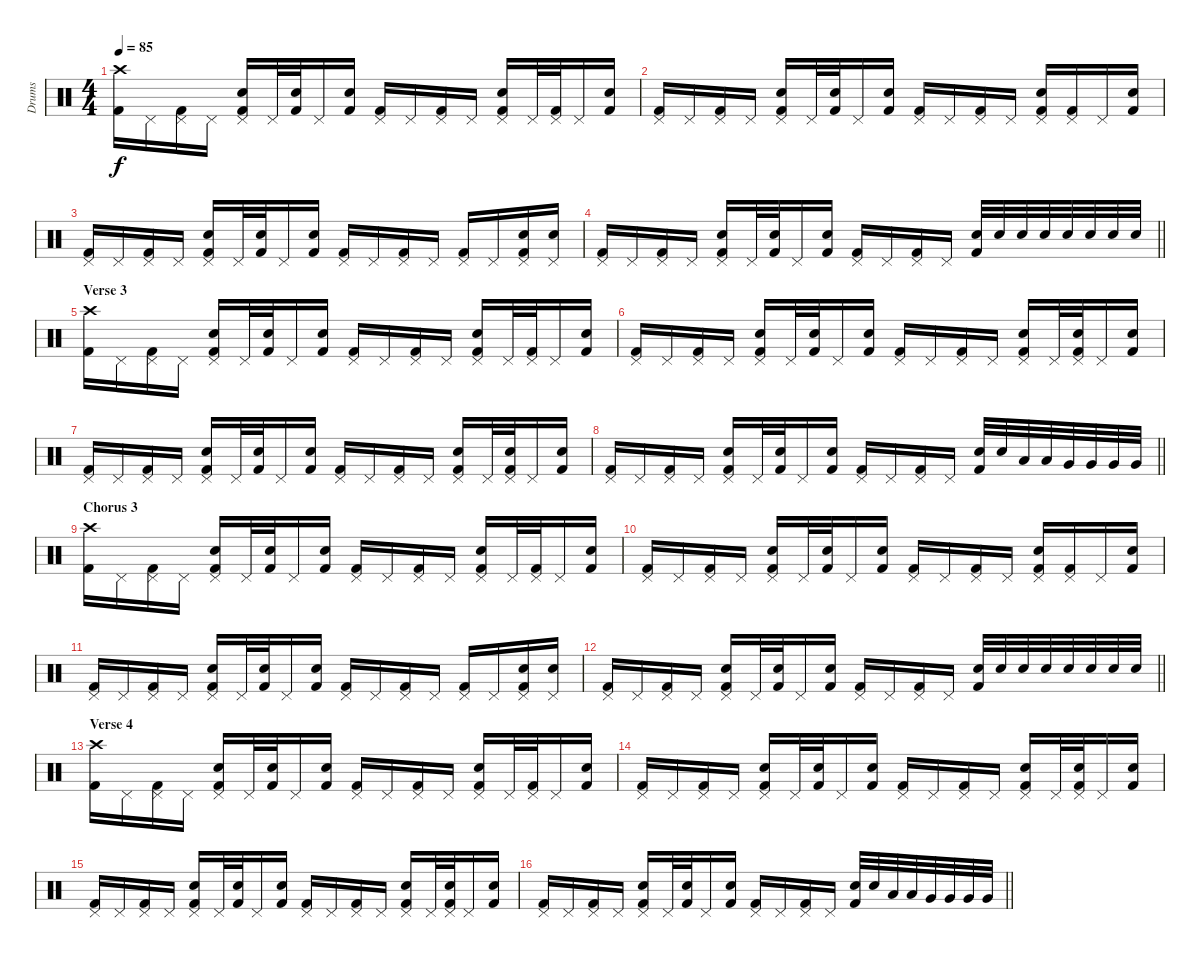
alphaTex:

\track ("Drums" "Drums") {instrument percussion}
\staff {score}
\articulation defaults
\ts (4 4)
\tempo 85
\clef neutral
\ks c
("Kick (hit) 2" "Crash high (hit)").16{dy f} "Pedal Hi-Hat (hit)".16 ("Kick (hit) 2" "Pedal Hi-Hat (hit)").16 "Pedal Hi-Hat (hit)".16 ("Kick (hit) 2" "Snare (hit) 2" "Pedal Hi-Hat (hit)").16 "Pedal Hi-Hat (hit)".32 ("Kick (hit) 2" "Snare (hit) 2").32 "Pedal Hi-Hat (hit)".16 ("Kick (hit) 2" "Snare (hit) 2").16 ("Kick (hit) 2" "Pedal Hi-Hat (hit)").16 "Pedal Hi-Hat (hit)".16 ("Kick (hit) 2" "Pedal Hi-Hat (hit)").16 "Pedal Hi-Hat (hit)".16 ("Kick (hit) 2" "Snare (hit) 2" "Pedal Hi-Hat (hit)").16 "Pedal Hi-Hat (hit)".32 ("Kick (hit) 2" "Pedal Hi-Hat (hit)").32 "Pedal Hi-Hat (hit)".16 ("Kick (hit) 2" "Snare (hit) 2").16 |
("Kick (hit) 2" "Pedal Hi-Hat (hit)").16 "Pedal Hi-Hat (hit)".16 ("Kick (hit) 2" "Pedal Hi-Hat (hit)").16 "Pedal Hi-Hat (hit)".16 ("Kick (hit) 2" "Snare (hit) 2" "Pedal Hi-Hat (hit)").16 "Pedal Hi-Hat (hit)".32 ("Kick (hit) 2" "Snare (hit) 2").32 "Pedal Hi-Hat (hit)".16 ("Kick (hit) 2" "Snare (hit) 2").16 ("Kick (hit) 2" "Pedal Hi-Hat (hit)").16 "Pedal Hi-Hat (hit)".16 ("Kick (hit) 2" "Pedal Hi-Hat (hit)").16 "Pedal Hi-Hat (hit)".16 ("Kick (hit) 2" "Snare (hit) 2" "Pedal Hi-Hat (hit)").16 ("Kick (hit) 2" "Pedal Hi-Hat (hit)").16 "Pedal Hi-Hat (hit)".16 ("Kick (hit) 2" "Snare (hit) 2").16 |
("Kick (hit) 2" "Pedal Hi-Hat (hit)").16 "Pedal Hi-Hat (hit)".16 ("Kick (hit) 2" "Pedal Hi-Hat (hit)").16 "Pedal Hi-Hat (hit)".16 ("Kick (hit) 2" "Snare (hit) 2" "Pedal Hi-Hat (hit)").16 "Pedal Hi-Hat (hit)".32 ("Kick (hit) 2" "Snare (hit) 2").32 "Pedal Hi-Hat (hit)".16 ("Kick (hit) 2" "Snare (hit) 2").16 ("Kick (hit) 2" "Pedal Hi-Hat (hit)").16 "Pedal Hi-Hat (hit)".16 ("Kick (hit) 2" "Pedal Hi-Hat (hit)").16 "Pedal Hi-Hat (hit)".16 ("Kick (hit) 2" "Pedal Hi-Hat (hit)").16 "Pedal Hi-Hat (hit)".16 ("Kick (hit) 2" "Snare (hit) 2" "Pedal Hi-Hat (hit)").16 ("Snare (hit) 2" "Pedal Hi-Hat (hit)").16 |
\barLineRight lightlight
("Kick (hit) 2" "Pedal Hi-Hat (hit)").16 "Pedal Hi-Hat (hit)".16 ("Kick (hit) 2" "Pedal Hi-Hat (hit)").16 "Pedal Hi-Hat (hit)".16 ("Kick (hit) 2" "Snare (hit) 2" "Pedal Hi-Hat (hit)").16 "Pedal Hi-Hat (hit)".32 ("Kick (hit) 2" "Snare (hit) 2").32 "Pedal Hi-Hat (hit)".16 ("Kick (hit) 2" "Snare (hit) 2").16 ("Kick (hit) 2" "Pedal Hi-Hat (hit)").16 "Pedal Hi-Hat (hit)".16 ("Kick (hit) 2" "Pedal Hi-Hat (hit)").16 "Pedal Hi-Hat (hit)".16 ("Kick (hit) 2" "Snare (hit) 2").32 "Snare (hit) 2".32 "Snare (hit) 2".32 "Snare (hit) 2".32 "Snare (hit) 2".32 "Snare (hit) 2".32 "Snare (hit) 2".32 "Snare (hit) 2".32 |
\section ("" "Verse 3")
("Kick (hit) 2" "Crash high (hit)").16 "Pedal Hi-Hat (hit)".16 ("Kick (hit) 2" "Pedal Hi-Hat (hit)").16 "Pedal Hi-Hat (hit)".16 ("Kick (hit) 2" "Snare (hit) 2" "Pedal Hi-Hat (hit)").16 "Pedal Hi-Hat (hit)".32 ("Kick (hit) 2" "Snare (hit) 2").32 "Pedal Hi-Hat (hit)".16 ("Kick (hit) 2" "Snare (hit) 2").16 ("Kick (hit) 2" "Pedal Hi-Hat (hit)").16 "Pedal Hi-Hat (hit)".16 ("Kick (hit) 2" "Pedal Hi-Hat (hit)").16 "Pedal Hi-Hat (hit)".16 ("Kick (hit) 2" "Snare (hit) 2" "Pedal Hi-Hat (hit)").16 "Pedal Hi-Hat (hit)".32 ("Kick (hit) 2" "Pedal Hi-Hat (hit)").32 "Pedal Hi-Hat (hit)".16 ("Kick (hit) 2" "Snare (hit) 2").16 |
("Kick (hit) 2" "Pedal Hi-Hat (hit)").16 "Pedal Hi-Hat (hit)".16 ("Kick (hit) 2" "Pedal Hi-Hat (hit)").16 "Pedal Hi-Hat (hit)".16 ("Kick (hit) 2" "Snare (hit) 2" "Pedal Hi-Hat (hit)").16 "Pedal Hi-Hat (hit)".32 ("Kick (hit) 2" "Snare (hit) 2").32 "Pedal Hi-Hat (hit)".16 ("Kick (hit) 2" "Snare (hit) 2").16 ("Kick (hit) 2" "Pedal Hi-Hat (hit)").16 "Pedal Hi-Hat (hit)".16 ("Kick (hit) 2" "Pedal Hi-Hat (hit)").16 "Pedal Hi-Hat (hit)".16 ("Kick (hit) 2" "Snare (hit) 2" "Pedal Hi-Hat (hit)").16 "Pedal Hi-Hat (hit)".32 ("Kick (hit) 2" "Snare (hit) 2" "Pedal Hi-Hat (hit)").32 "Pedal Hi-Hat (hit)".16 ("Kick (hit) 2" "Snare (hit) 2").16 |
("Kick (hit) 2" "Pedal Hi-Hat (hit)").16 "Pedal Hi-Hat (hit)".16 ("Kick (hit) 2" "Pedal Hi-Hat (hit)").16 "Pedal Hi-Hat (hit)".16 ("Kick (hit) 2" "Snare (hit) 2" "Pedal Hi-Hat (hit)").16 "Pedal Hi-Hat (hit)".32 ("Kick (hit) 2" "Snare (hit) 2").32 "Pedal Hi-Hat (hit)".16 ("Kick (hit) 2" "Snare (hit) 2").16 ("Kick (hit) 2" "Pedal Hi-Hat (hit)").16 "Pedal Hi-Hat (hit)".16 ("Kick (hit) 2" "Pedal Hi-Hat (hit)").16 "Pedal Hi-Hat (hit)".16 ("Kick (hit) 2" "Snare (hit) 2" "Pedal Hi-Hat (hit)").16 "Pedal Hi-Hat (hit)".32 ("Kick (hit) 2" "Snare (hit) 2" "Pedal Hi-Hat (hit)").32 "Pedal Hi-Hat (hit)".16 ("Kick (hit) 2" "Snare (hit) 2").16 |
\barLineRight lightlight
("Kick (hit) 2" "Pedal Hi-Hat (hit)").16 "Pedal Hi-Hat (hit)".16 ("Kick (hit) 2" "Pedal Hi-Hat (hit)").16 "Pedal Hi-Hat (hit)".16 ("Kick (hit) 2" "Snare (hit) 2" "Pedal Hi-Hat (hit)").16 "Pedal Hi-Hat (hit)".32 ("Kick (hit) 2" "Snare (hit) 2").32 "Pedal Hi-Hat (hit)".16 ("Kick (hit) 2" "Snare (hit) 2").16 ("Kick (hit) 2" "Pedal Hi-Hat (hit)").16 "Pedal Hi-Hat (hit)".16 ("Kick (hit) 2" "Pedal Hi-Hat (hit)").16 "Pedal Hi-Hat (hit)".16 ("Kick (hit) 2" "Snare (hit) 2").32 "Snare (hit) 2".32 "Low Tom (hit)".32 "Low Tom (hit)".32 "Very Low Tom (hit)".32 "Very Low Tom (hit)".32 "Very Low Tom (hit)".32 "Very Low Tom (hit)".32 |
\section ("" "Chorus 3")
("Kick (hit) 2" "Crash high (hit)").16 "Pedal Hi-Hat (hit)".16 ("Kick (hit) 2" "Pedal Hi-Hat (hit)").16 "Pedal Hi-Hat (hit)".16 ("Kick (hit) 2" "Snare (hit) 2" "Pedal Hi-Hat (hit)").16 "Pedal Hi-Hat (hit)".32 ("Kick (hit) 2" "Snare (hit) 2").32 "Pedal Hi-Hat (hit)".16 ("Kick (hit) 2" "Snare (hit) 2").16 ("Kick (hit) 2" "Pedal Hi-Hat (hit)").16 "Pedal Hi-Hat (hit)".16 ("Kick (hit) 2" "Pedal Hi-Hat (hit)").16 "Pedal Hi-Hat (hit)".16 ("Kick (hit) 2" "Snare (hit) 2" "Pedal Hi-Hat (hit)").16 "Pedal Hi-Hat (hit)".32 ("Kick (hit) 2" "Pedal Hi-Hat (hit)").32 "Pedal Hi-Hat (hit)".16 ("Kick (hit) 2" "Snare (hit) 2").16 |
("Kick (hit) 2" "Pedal Hi-Hat (hit)").16 "Pedal Hi-Hat (hit)".16 ("Kick (hit) 2" "Pedal Hi-Hat (hit)").16 "Pedal Hi-Hat (hit)".16 ("Kick (hit) 2" "Snare (hit) 2" "Pedal Hi-Hat (hit)").16 "Pedal Hi-Hat (hit)".32 ("Kick (hit) 2" "Snare (hit) 2").32 "Pedal Hi-Hat (hit)".16 ("Kick (hit) 2" "Snare (hit) 2").16 ("Kick (hit) 2" "Pedal Hi-Hat (hit)").16 "Pedal Hi-Hat (hit)".16 ("Kick (hit) 2" "Pedal Hi-Hat (hit)").16 "Pedal Hi-Hat (hit)".16 ("Kick (hit) 2" "Snare (hit) 2" "Pedal Hi-Hat (hit)").16 ("Kick (hit) 2" "Pedal Hi-Hat (hit)").16 "Pedal Hi-Hat (hit)".16 ("Kick (hit) 2" "Snare (hit) 2").16 |
("Kick (hit) 2" "Pedal Hi-Hat (hit)").16 "Pedal Hi-Hat (hit)".16 ("Kick (hit) 2" "Pedal Hi-Hat (hit)").16 "Pedal Hi-Hat (hit)".16 ("Kick (hit) 2" "Snare (hit) 2" "Pedal Hi-Hat (hit)").16 "Pedal Hi-Hat (hit)".32 ("Kick (hit) 2" "Snare (hit) 2").32 "Pedal Hi-Hat (hit)".16 ("Kick (hit) 2" "Snare (hit) 2").16 ("Kick (hit) 2" "Pedal Hi-Hat (hit)").16 "Pedal Hi-Hat (hit)".16 ("Kick (hit) 2" "Pedal Hi-Hat (hit)").16 "Pedal Hi-Hat (hit)".16 ("Kick (hit) 2" "Pedal Hi-Hat (hit)").16 "Pedal Hi-Hat (hit)".16 ("Kick (hit) 2" "Snare (hit) 2" "Pedal Hi-Hat (hit)").16 ("Snare (hit) 2" "Pedal Hi-Hat (hit)").16 |
\barLineRight lightlight
("Kick (hit) 2" "Pedal Hi-Hat (hit)").16 "Pedal Hi-Hat (hit)".16 ("Kick (hit) 2" "Pedal Hi-Hat (hit)").16 "Pedal Hi-Hat (hit)".16 ("Kick (hit) 2" "Snare (hit) 2" "Pedal Hi-Hat (hit)").16 "Pedal Hi-Hat (hit)".32 ("Kick (hit) 2" "Snare (hit) 2").32 "Pedal Hi-Hat (hit)".16 ("Kick (hit) 2" "Snare (hit) 2").16 ("Kick (hit) 2" "Pedal Hi-Hat (hit)").16 "Pedal Hi-Hat (hit)".16 ("Kick (hit) 2" "Pedal Hi-Hat (hit)").16 "Pedal Hi-Hat (hit)".16 ("Kick (hit) 2" "Snare (hit) 2").32 "Snare (hit) 2".32 "Snare (hit) 2".32 "Snare (hit) 2".32 "Snare (hit) 2".32 "Snare (hit) 2".32 "Snare (hit) 2".32 "Snare (hit) 2".32 |
\section ("" "Verse 4")
("Kick (hit) 2" "Crash high (hit)").16 "Pedal Hi-Hat (hit)".16 ("Kick (hit) 2" "Pedal Hi-Hat (hit)").16 "Pedal Hi-Hat (hit)".16 ("Kick (hit) 2" "Snare (hit) 2" "Pedal Hi-Hat (hit)").16 "Pedal Hi-Hat (hit)".32 ("Kick (hit) 2" "Snare (hit) 2").32 "Pedal Hi-Hat (hit)".16 ("Kick (hit) 2" "Snare (hit) 2").16 ("Kick (hit) 2" "Pedal Hi-Hat (hit)").16 "Pedal Hi-Hat (hit)".16 ("Kick (hit) 2" "Pedal Hi-Hat (hit)").16 "Pedal Hi-Hat (hit)".16 ("Kick (hit) 2" "Snare (hit) 2" "Pedal Hi-Hat (hit)").16 "Pedal Hi-Hat (hit)".32 ("Kick (hit) 2" "Pedal Hi-Hat (hit)").32 "Pedal Hi-Hat (hit)".16 ("Kick (hit) 2" "Snare (hit) 2").16 |
("Kick (hit) 2" "Pedal Hi-Hat (hit)").16 "Pedal Hi-Hat (hit)".16 ("Kick (hit) 2" "Pedal Hi-Hat (hit)").16 "Pedal Hi-Hat (hit)".16 ("Kick (hit) 2" "Snare (hit) 2" "Pedal Hi-Hat (hit)").16 "Pedal Hi-Hat (hit)".32 ("Kick (hit) 2" "Snare (hit) 2").32 "Pedal Hi-Hat (hit)".16 ("Kick (hit) 2" "Snare (hit) 2").16 ("Kick (hit) 2" "Pedal Hi-Hat (hit)").16 "Pedal Hi-Hat (hit)".16 ("Kick (hit) 2" "Pedal Hi-Hat (hit)").16 "Pedal Hi-Hat (hit)".16 ("Kick (hit) 2" "Snare (hit) 2" "Pedal Hi-Hat (hit)").16 "Pedal Hi-Hat (hit)".32 ("Kick (hit) 2" "Snare (hit) 2" "Pedal Hi-Hat (hit)").32 "Pedal Hi-Hat (hit)".16 ("Kick (hit) 2" "Snare (hit) 2").16 |
("Kick (hit) 2" "Pedal Hi-Hat (hit)").16 "Pedal Hi-Hat (hit)".16 ("Kick (hit) 2" "Pedal Hi-Hat (hit)").16 "Pedal Hi-Hat (hit)".16 ("Kick (hit) 2" "Snare (hit) 2" "Pedal Hi-Hat (hit)").16 "Pedal Hi-Hat (hit)".32 ("Kick (hit) 2" "Snare (hit) 2").32 "Pedal Hi-Hat (hit)".16 ("Kick (hit) 2" "Snare (hit) 2").16 ("Kick (hit) 2" "Pedal Hi-Hat (hit)").16 "Pedal Hi-Hat (hit)".16 ("Kick (hit) 2" "Pedal Hi-Hat (hit)").16 "Pedal Hi-Hat (hit)".16 ("Kick (hit) 2" "Snare (hit) 2" "Pedal Hi-Hat (hit)").16 "Pedal Hi-Hat (hit)".32 ("Kick (hit) 2" "Snare (hit) 2" "Pedal Hi-Hat (hit)").32 "Pedal Hi-Hat (hit)".16 ("Kick (hit) 2" "Snare (hit) 2").16 |
\barLineRight lightlight
("Kick (hit) 2" "Pedal Hi-Hat (hit)").16 "Pedal Hi-Hat (hit)".16 ("Kick (hit) 2" "Pedal Hi-Hat (hit)").16 "Pedal Hi-Hat (hit)".16 ("Kick (hit) 2" "Snare (hit) 2" "Pedal Hi-Hat (hit)").16 "Pedal Hi-Hat (hit)".32 ("Kick (hit) 2" "Snare (hit) 2").32 "Pedal Hi-Hat (hit)".16 ("Kick (hit) 2" "Snare (hit) 2").16 ("Kick (hit) 2" "Pedal Hi-Hat (hit)").16 "Pedal Hi-Hat (hit)".16 ("Kick (hit) 2" "Pedal Hi-Hat (hit)").16 "Pedal Hi-Hat (hit)".16 ("Kick (hit) 2" "Snare (hit) 2").32 "Snare (hit) 2".32 "Low Tom (hit)".32 "Low Tom (hit)".32 "Very Low Tom (hit)".32 "Very Low Tom (hit)".32 "Very Low Tom (hit)".32 "Very Low Tom (hit)".32
